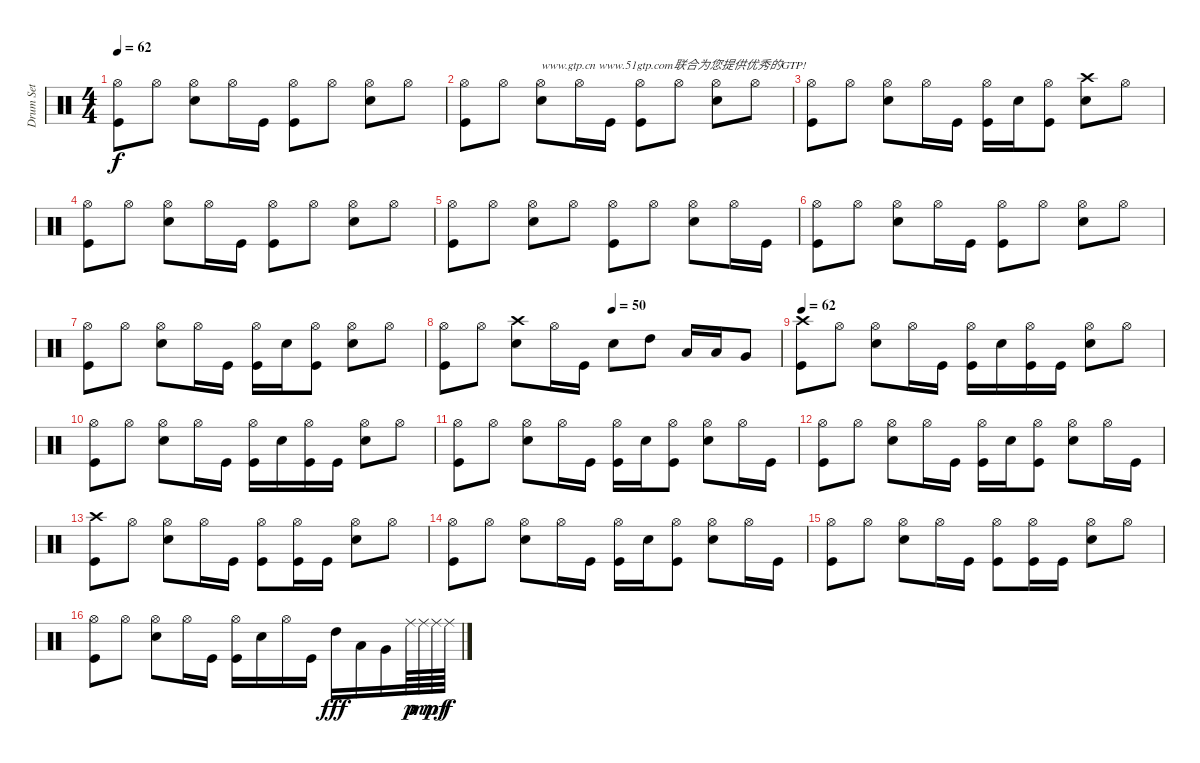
\track ("Drum Set" "Drum Set") {instrument percussion}
\staff {score}
\articulation defaults
\ts (4 4)
\tempo 62
\clef neutral
\ks c
("Hi-Hat (open)" "Kick (hit)").8{dy f} "Hi-Hat (open)".8 ("Hi-Hat (open)" "Electric Snare (hit)").8 "Hi-Hat (open)".16 "Kick (hit)".16 ("Hi-Hat (open)" "Kick (hit)").8 "Hi-Hat (open)".8 ("Hi-Hat (open)" "Electric Snare (hit)").8 "Hi-Hat (open)".8 |
("Hi-Hat (open)" "Kick (hit)").8 "Hi-Hat (open)".8 ("Hi-Hat (open)" "Electric Snare (hit)").8{txt "www.gtp.cn www.51gtp.com联合为您提供优秀的GTP!"} "Hi-Hat (open)".16 "Kick (hit)".16 ("Hi-Hat (open)" "Kick (hit)").8 "Hi-Hat (open)".8 ("Hi-Hat (open)" "Electric Snare (hit)").8 "Hi-Hat (open)".8 |
("Hi-Hat (open)" "Kick (hit)").8 "Hi-Hat (open)".8 ("Hi-Hat (open)" "Electric Snare (hit)").8 "Hi-Hat (open)".16 "Kick (hit)".16 ("Hi-Hat (open)" "Kick (hit)").16 "Electric Snare (hit)".16 ("Hi-Hat (open)" "Kick (hit)").8 ("Crash high (hit)" "Electric Snare (hit)").8 "Hi-Hat (open)".8 |
("Hi-Hat (open)" "Kick (hit)").8 "Hi-Hat (open)".8 ("Hi-Hat (open)" "Electric Snare (hit)").8 "Hi-Hat (open)".16 "Kick (hit)".16 ("Hi-Hat (open)" "Kick (hit)").8 "Hi-Hat (open)".8 ("Hi-Hat (open)" "Electric Snare (hit)").8 "Hi-Hat (open)".8 |
("Hi-Hat (open)" "Kick (hit)").8 "Hi-Hat (open)".8 ("Hi-Hat (open)" "Electric Snare (hit)").8 "Hi-Hat (open)".8 ("Hi-Hat (open)" "Kick (hit)").8 "Hi-Hat (open)".8 ("Hi-Hat (open)" "Electric Snare (hit)").8 "Hi-Hat (open)".16 "Kick (hit)".16 |
("Hi-Hat (open)" "Kick (hit)").8 "Hi-Hat (open)".8 ("Hi-Hat (open)" "Electric Snare (hit)").8 "Hi-Hat (open)".16 "Kick (hit)".16 ("Hi-Hat (open)" "Kick (hit)").8 "Hi-Hat (open)".8 ("Hi-Hat (open)" "Electric Snare (hit)").8 "Hi-Hat (open)".8 |
("Hi-Hat (open)" "Kick (hit)").8 "Hi-Hat (open)".8 ("Hi-Hat (open)" "Electric Snare (hit)").8 "Hi-Hat (open)".16 "Kick (hit)".16 ("Hi-Hat (open)" "Kick (hit)").16 "Electric Snare (hit)".16 ("Hi-Hat (open)" "Kick (hit)").8 ("Hi-Hat (open)" "Electric Snare (hit)").8 "Hi-Hat (open)".8 |
\tempo (50 0.5)
("Hi-Hat (open)" "Kick (hit)").8 "Hi-Hat (open)".8 ("Crash high (hit)" "Electric Snare (hit)").8 "Hi-Hat (open)".16 "Kick (hit)".16 "Electric Snare (hit)".8 "High Tom (hit)".8 "Low Tom (hit)".16 "Low Tom (hit)".16 "Very Low Tom (hit)".8 |
\tempo 62
("Crash high (hit)" "Kick (hit)").8 "Hi-Hat (open)".8 ("Hi-Hat (open)" "Electric Snare (hit)").8 "Hi-Hat (open)".16 "Kick (hit)".16 ("Hi-Hat (open)" "Kick (hit)").16 "Electric Snare (hit)".16 ("Hi-Hat (open)" "Kick (hit)").16 "Kick (hit)".16 ("Hi-Hat (open)" "Electric Snare (hit)").8 "Hi-Hat (open)".8 |
("Hi-Hat (open)" "Kick (hit)").8 "Hi-Hat (open)".8 ("Hi-Hat (open)" "Electric Snare (hit)").8 "Hi-Hat (open)".16 "Kick (hit)".16 ("Hi-Hat (open)" "Kick (hit)").16 "Electric Snare (hit)".16 ("Hi-Hat (open)" "Kick (hit)").16 "Kick (hit)".16 ("Hi-Hat (open)" "Electric Snare (hit)").8 "Hi-Hat (open)".8 |
("Hi-Hat (open)" "Kick (hit)").8 "Hi-Hat (open)".8 ("Hi-Hat (open)" "Electric Snare (hit)").8 "Hi-Hat (open)".16 "Kick (hit)".16 ("Hi-Hat (open)" "Kick (hit)").16 "Electric Snare (hit)".16 ("Hi-Hat (open)" "Kick (hit)").8 ("Hi-Hat (open)" "Electric Snare (hit)").8 "Hi-Hat (open)".16 "Kick (hit)".16 |
("Hi-Hat (open)" "Kick (hit)").8 "Hi-Hat (open)".8 ("Hi-Hat (open)" "Electric Snare (hit)").8 "Hi-Hat (open)".16 "Kick (hit)".16 ("Hi-Hat (open)" "Kick (hit)").16 "Electric Snare (hit)".16 ("Hi-Hat (open)" "Kick (hit)").8 ("Hi-Hat (open)" "Electric Snare (hit)").8 "Hi-Hat (open)".16 "Kick (hit)".16 |
("Crash high (hit)" "Kick (hit)").8 "Hi-Hat (open)".8 ("Hi-Hat (open)" "Electric Snare (hit)").8 "Hi-Hat (open)".16 "Kick (hit)".16 ("Hi-Hat (open)" "Kick (hit)").8 ("Hi-Hat (open)" "Kick (hit)").16 "Kick (hit)".16 ("Hi-Hat (open)" "Electric Snare (hit)").8 "Hi-Hat (open)".8 |
("Hi-Hat (open)" "Kick (hit)").8 "Hi-Hat (open)".8 ("Hi-Hat (open)" "Electric Snare (hit)").8 "Hi-Hat (open)".16 "Kick (hit)".16 ("Hi-Hat (open)" "Kick (hit)").16 "Electric Snare (hit)".16 ("Hi-Hat (open)" "Kick (hit)").8 ("Hi-Hat (open)" "Electric Snare (hit)").8 "Hi-Hat (open)".16 "Kick (hit)".16 |
("Hi-Hat (open)" "Kick (hit)").8 "Hi-Hat (open)".8 ("Hi-Hat (open)" "Electric Snare (hit)").8 "Hi-Hat (open)".16 "Kick (hit)".16 ("Hi-Hat (open)" "Kick (hit)").8 ("Hi-Hat (open)" "Kick (hit)").16 "Kick (hit)".16 ("Hi-Hat (open)" "Electric Snare (hit)").8 "Hi-Hat (open)".8 |
("Hi-Hat (open)" "Kick (hit)").8 "Hi-Hat (open)".8 ("Hi-Hat (open)" "Electric Snare (hit)").8 "Hi-Hat (open)".16 "Kick (hit)".16 ("Hi-Hat (open)" "Kick (hit)").16 "Electric Snare (hit)".16 "Hi-Hat (open)".16 "Kick (hit)".16 "High Tom (hit)".16{dy fff} "Low Tom (hit)".16 "Very Low Tom (hit)".16 "Ride (middle)".64{dy p} "Ride (middle)".64{dy mp} "Ride (middle)".64{dy mf} "Ride (middle)".64{dy f}
